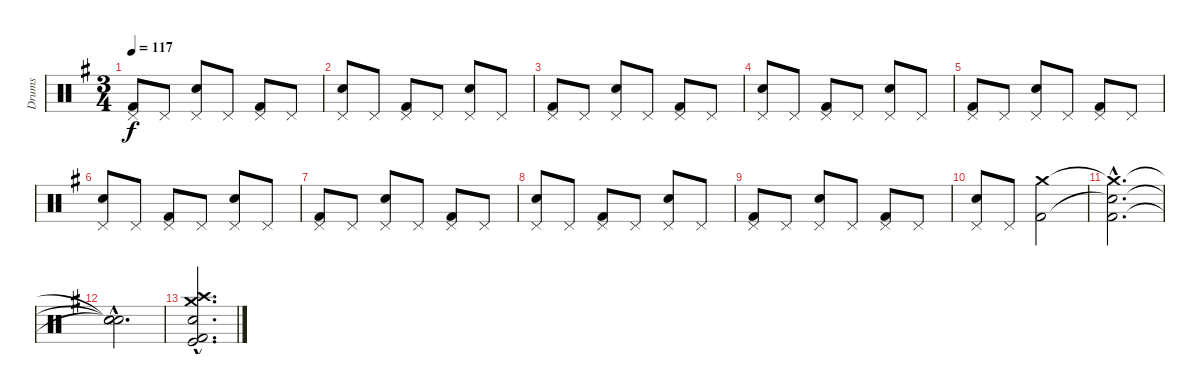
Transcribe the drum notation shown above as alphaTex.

\track ("Drums" "Drums") {instrument percussion}
\staff {score}
\articulation defaults
\ts (3 4)
\tempo 117
\clef neutral
\ks g
("Pedal Hi-Hat (hit)" "Kick (hit) 2").8{dy f} "Pedal Hi-Hat (hit)".8 ("Pedal Hi-Hat (hit)" "Snare (hit) 2").8 "Pedal Hi-Hat (hit)".8 ("Pedal Hi-Hat (hit)" "Kick (hit) 2").8 "Pedal Hi-Hat (hit)".8 |
("Pedal Hi-Hat (hit)" "Snare (hit) 2").8 "Pedal Hi-Hat (hit)".8 ("Pedal Hi-Hat (hit)" "Kick (hit) 2").8 "Pedal Hi-Hat (hit)".8 ("Pedal Hi-Hat (hit)" "Snare (hit) 2").8 "Pedal Hi-Hat (hit)".8 |
("Pedal Hi-Hat (hit)" "Kick (hit) 2").8 "Pedal Hi-Hat (hit)".8 ("Pedal Hi-Hat (hit)" "Snare (hit) 2").8 "Pedal Hi-Hat (hit)".8 ("Pedal Hi-Hat (hit)" "Kick (hit) 2").8 "Pedal Hi-Hat (hit)".8 |
("Pedal Hi-Hat (hit)" "Snare (hit) 2").8 "Pedal Hi-Hat (hit)".8 ("Pedal Hi-Hat (hit)" "Kick (hit) 2").8 "Pedal Hi-Hat (hit)".8 ("Pedal Hi-Hat (hit)" "Snare (hit) 2").8 "Pedal Hi-Hat (hit)".8 |
("Pedal Hi-Hat (hit)" "Kick (hit) 2").8 "Pedal Hi-Hat (hit)".8 ("Pedal Hi-Hat (hit)" "Snare (hit) 2").8 "Pedal Hi-Hat (hit)".8 ("Pedal Hi-Hat (hit)" "Kick (hit) 2").8 "Pedal Hi-Hat (hit)".8 |
("Pedal Hi-Hat (hit)" "Snare (hit) 2").8 "Pedal Hi-Hat (hit)".8 ("Pedal Hi-Hat (hit)" "Kick (hit) 2").8 "Pedal Hi-Hat (hit)".8 ("Pedal Hi-Hat (hit)" "Snare (hit) 2").8 "Pedal Hi-Hat (hit)".8 |
("Pedal Hi-Hat (hit)" "Kick (hit) 2").8 "Pedal Hi-Hat (hit)".8 ("Pedal Hi-Hat (hit)" "Snare (hit) 2").8 "Pedal Hi-Hat (hit)".8 ("Pedal Hi-Hat (hit)" "Kick (hit) 2").8 "Pedal Hi-Hat (hit)".8 |
("Pedal Hi-Hat (hit)" "Snare (hit) 2").8 "Pedal Hi-Hat (hit)".8 ("Pedal Hi-Hat (hit)" "Kick (hit) 2").8 "Pedal Hi-Hat (hit)".8 ("Pedal Hi-Hat (hit)" "Snare (hit) 2").8 "Pedal Hi-Hat (hit)".8 |
("Pedal Hi-Hat (hit)" "Kick (hit) 2").8 "Pedal Hi-Hat (hit)".8 ("Pedal Hi-Hat (hit)" "Snare (hit) 2").8 "Pedal Hi-Hat (hit)".8 ("Pedal Hi-Hat (hit)" "Kick (hit) 2").8 "Pedal Hi-Hat (hit)".8 |
("Pedal Hi-Hat (hit)" "Snare (hit) 2").8 "Pedal Hi-Hat (hit)".8 ("Crash medium (hit)" "Kick (hit) 2").2 |
("Crash medium (hit)"{hac t} "Snare (hit) 2"{hac t} "Kick (hit) 2"{hac}).2{d} |
("Snare (hit)"{hac t} "Snare (hit)"{hac t} "Snare (hit)"{hac t}).2{d} |
("Crash medium (hit)"{hac} "Crash high (hit)"{hac} "Electric Snare (hit)"{hac} "Kick (hit) 2"{hac} "Kick (hit)"{hac}).2{d}
